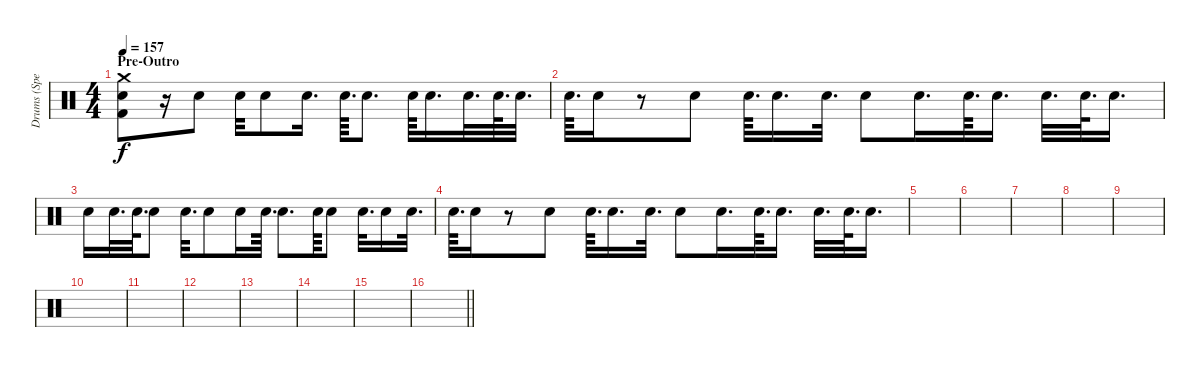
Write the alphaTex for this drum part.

\track ("Drums (Spencer Smith)" "Drums (Spe") {instrument percussion}
\staff {score}
\articulation defaults
\ts (4 4)
\section ("" "Pre-Outro")
\tempo 157
\clef neutral
\ks c
("Crash medium (hit)" "Hand Clap (hit)" "Kick (hit) 2").8{dy f} r.16 "Hand Clap (hit)".8 "Hand Clap (hit)".32 "Hand Clap (hit)".8 "Hand Clap (hit)".16{d} "Hand Clap (hit)".64{d} "Hand Clap (hit)".8{d} "Hand Clap (hit)".64 "Hand Clap (hit)".16{d} "Hand Clap (hit)".32{d} "Hand Clap (hit)".64{d} "Hand Clap (hit)".32{d} |
"Hand Clap (hit)".64{d} "Hand Clap (hit)".16 r.8 "Hand Clap (hit)".8 "Hand Clap (hit)".64{d} "Hand Clap (hit)".16{d} "Hand Clap (hit)".32{d} "Hand Clap (hit)".8 "Hand Clap (hit)".16{d} "Hand Clap (hit)".64{d} "Hand Clap (hit)".16{d} "Hand Clap (hit)".32{d} "Hand Clap (hit)".64{d} "Hand Clap (hit)".16{d} |
"Hand Clap (hit)".16{volume 0} "Hand Clap (hit)".32{d} "Hand Clap (hit)".64{d} "Hand Clap (hit)".8 "Hand Clap (hit)".32{d} "Hand Clap (hit)".8 "Hand Clap (hit)".16 "Hand Clap (hit)".64{d} "Hand Clap (hit)".8{d} "Hand Clap (hit)".64 "Hand Clap (hit)".8 "Hand Clap (hit)".32{d} "Hand Clap (hit)".16 "Hand Clap (hit)".32{d} |
"Hand Clap (hit)".64{d} "Hand Clap (hit)".16 r.8 "Hand Clap (hit)".8 "Hand Clap (hit)".64{d} "Hand Clap (hit)".16{d} "Hand Clap (hit)".32{d} "Hand Clap (hit)".8 "Hand Clap (hit)".16{d} "Hand Clap (hit)".64{d} "Hand Clap (hit)".16{d} "Hand Clap (hit)".32{d} "Hand Clap (hit)".64{d} "Hand Clap (hit)".16{d} |
|
|
|
|
|
|
|
|
|
|
|
\barLineRight lightlight
